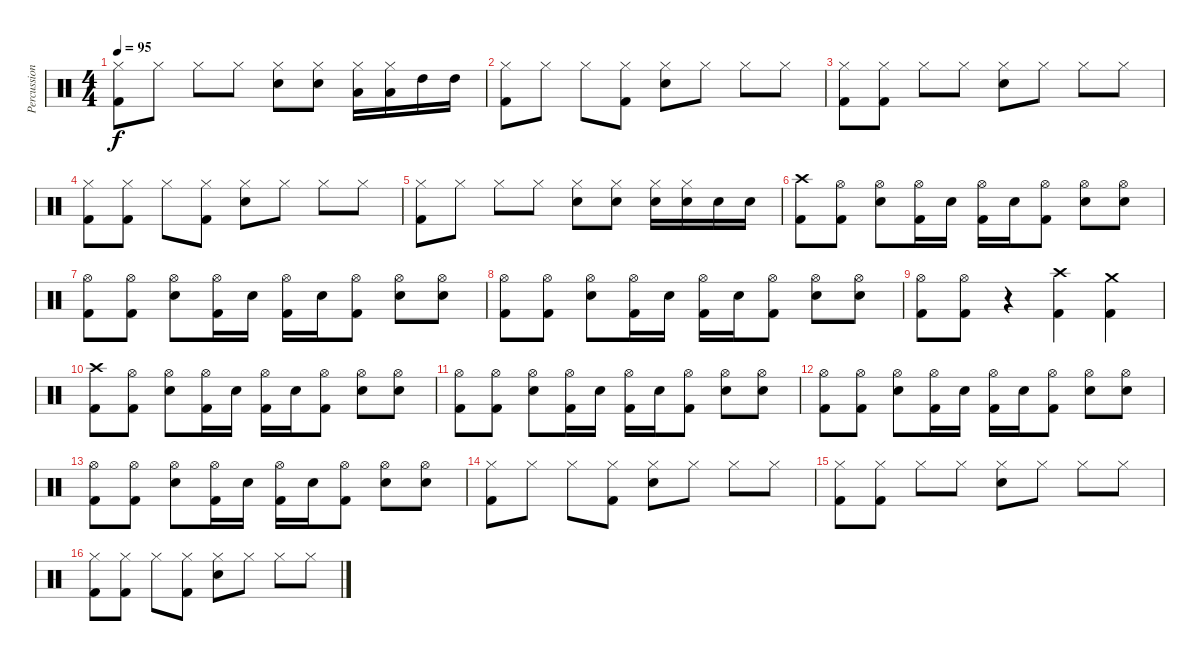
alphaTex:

\track ("Percussion" "Percussion") {instrument percussion}
\staff {score}
\articulation defaults
\ts (4 4)
\tempo 95
\clef neutral
\ks c
("Kick (hit) 2" "Hi-Hat (closed)").8{dy f} "Hi-Hat (closed)".8 "Hi-Hat (closed)".8 "Hi-Hat (closed)".8 ("Snare (hit) 2" "Hi-Hat (closed)").8 ("Snare (hit) 2" "Hi-Hat (closed)").8 ("Low Tom (hit)" "Hi-Hat (closed)").16 ("Low Tom (hit)" "Hi-Hat (closed)").16 "High Tom (hit)".16 "High Tom (hit)".16 |
("Kick (hit) 2" "Hi-Hat (closed)").8 "Hi-Hat (closed)".8 "Hi-Hat (closed)".8 ("Kick (hit) 2" "Hi-Hat (closed)").8 ("Snare (hit) 2" "Hi-Hat (closed)").8 "Hi-Hat (closed)".8 "Hi-Hat (closed)".8 "Hi-Hat (closed)".8 |
("Kick (hit) 2" "Hi-Hat (closed)").8 ("Kick (hit) 2" "Hi-Hat (closed)").8 "Hi-Hat (closed)".8 "Hi-Hat (closed)".8 ("Snare (hit) 2" "Hi-Hat (closed)").8 "Hi-Hat (closed)".8 "Hi-Hat (closed)".8 "Hi-Hat (closed)".8 |
("Kick (hit) 2" "Hi-Hat (closed)").8 ("Kick (hit) 2" "Hi-Hat (closed)").8 "Hi-Hat (closed)".8 ("Kick (hit) 2" "Hi-Hat (closed)").8 ("Snare (hit) 2" "Hi-Hat (closed)").8 "Hi-Hat (closed)".8 "Hi-Hat (closed)".8 "Hi-Hat (closed)".8 |
("Kick (hit) 2" "Hi-Hat (closed)").8 "Hi-Hat (closed)".8 "Hi-Hat (closed)".8 "Hi-Hat (closed)".8 ("Snare (hit) 2" "Hi-Hat (closed)").8 ("Snare (hit) 2" "Hi-Hat (closed)").8 ("Snare (hit) 2" "Hi-Hat (closed)").16 ("Snare (hit) 2" "Hi-Hat (closed)").16 "Snare (hit) 2".16 "Snare (hit) 2".16 |
("Kick (hit) 2" "Crash high (hit)").8 ("Kick (hit) 2" "Hi-Hat (open)").8 ("Snare (hit) 2" "Hi-Hat (open)").8 ("Kick (hit) 2" "Hi-Hat (open)").16 "Snare (hit) 2".16 ("Kick (hit) 2" "Hi-Hat (open)").16 "Snare (hit) 2".16 ("Kick (hit) 2" "Hi-Hat (open)").8 ("Snare (hit) 2" "Hi-Hat (open)").8 ("Snare (hit) 2" "Hi-Hat (open)").8 |
("Kick (hit) 2" "Hi-Hat (open)").8 ("Kick (hit) 2" "Hi-Hat (open)").8 ("Snare (hit) 2" "Hi-Hat (open)").8 ("Kick (hit) 2" "Hi-Hat (open)").16 "Snare (hit) 2".16 ("Kick (hit) 2" "Hi-Hat (open)").16 "Snare (hit) 2".16 ("Kick (hit) 2" "Hi-Hat (open)").8 ("Snare (hit) 2" "Hi-Hat (open)").8 ("Snare (hit) 2" "Hi-Hat (open)").8 |
("Kick (hit) 2" "Hi-Hat (open)").8 ("Kick (hit) 2" "Hi-Hat (open)").8 ("Snare (hit) 2" "Hi-Hat (open)").8 ("Kick (hit) 2" "Hi-Hat (open)").16 "Snare (hit) 2".16 ("Kick (hit) 2" "Hi-Hat (open)").16 "Snare (hit) 2".16 ("Kick (hit) 2" "Hi-Hat (open)").8 ("Snare (hit) 2" "Hi-Hat (open)").8 ("Snare (hit) 2" "Hi-Hat (open)").8 |
("Kick (hit) 2" "Hi-Hat (open)").8 ("Kick (hit) 2" "Hi-Hat (open)").8 r.4 ("Kick (hit) 2" "Crash high (hit)").4 ("Kick (hit) 2" "Crash medium (hit)").4 |
("Kick (hit) 2" "Crash high (hit)").8 ("Kick (hit) 2" "Hi-Hat (open)").8 ("Snare (hit) 2" "Hi-Hat (open)").8 ("Kick (hit) 2" "Hi-Hat (open)").16 "Snare (hit) 2".16 ("Kick (hit) 2" "Hi-Hat (open)").16 "Snare (hit) 2".16 ("Kick (hit) 2" "Hi-Hat (open)").8 ("Snare (hit) 2" "Hi-Hat (open)").8 ("Snare (hit) 2" "Hi-Hat (open)").8 |
("Kick (hit) 2" "Hi-Hat (open)").8 ("Kick (hit) 2" "Hi-Hat (open)").8 ("Snare (hit) 2" "Hi-Hat (open)").8 ("Kick (hit) 2" "Hi-Hat (open)").16 "Snare (hit) 2".16 ("Kick (hit) 2" "Hi-Hat (open)").16 "Snare (hit) 2".16 ("Kick (hit) 2" "Hi-Hat (open)").8 ("Snare (hit) 2" "Hi-Hat (open)").8 ("Snare (hit) 2" "Hi-Hat (open)").8 |
("Kick (hit) 2" "Hi-Hat (open)").8 ("Kick (hit) 2" "Hi-Hat (open)").8 ("Snare (hit) 2" "Hi-Hat (open)").8 ("Kick (hit) 2" "Hi-Hat (open)").16 "Snare (hit) 2".16 ("Kick (hit) 2" "Hi-Hat (open)").16 "Snare (hit) 2".16 ("Kick (hit) 2" "Hi-Hat (open)").8 ("Snare (hit) 2" "Hi-Hat (open)").8 ("Snare (hit) 2" "Hi-Hat (open)").8 |
("Kick (hit) 2" "Hi-Hat (open)").8 ("Kick (hit) 2" "Hi-Hat (open)").8 ("Snare (hit) 2" "Hi-Hat (open)").8 ("Kick (hit) 2" "Hi-Hat (open)").16 "Snare (hit) 2".16 ("Kick (hit) 2" "Hi-Hat (open)").16 "Snare (hit) 2".16 ("Kick (hit) 2" "Hi-Hat (open)").8 ("Snare (hit) 2" "Hi-Hat (open)").8 ("Snare (hit) 2" "Hi-Hat (open)").8 |
("Kick (hit) 2" "Hi-Hat (closed)").8 "Hi-Hat (closed)".8 "Hi-Hat (closed)".8 ("Kick (hit) 2" "Hi-Hat (closed)").8 ("Snare (hit) 2" "Hi-Hat (closed)").8 "Hi-Hat (closed)".8 "Hi-Hat (closed)".8 "Hi-Hat (closed)".8 |
("Kick (hit) 2" "Hi-Hat (closed)").8 ("Kick (hit) 2" "Hi-Hat (closed)").8 "Hi-Hat (closed)".8 "Hi-Hat (closed)".8 ("Snare (hit) 2" "Hi-Hat (closed)").8 "Hi-Hat (closed)".8 "Hi-Hat (closed)".8 "Hi-Hat (closed)".8 |
("Kick (hit) 2" "Hi-Hat (closed)").8 ("Kick (hit) 2" "Hi-Hat (closed)").8 "Hi-Hat (closed)".8 ("Kick (hit) 2" "Hi-Hat (closed)").8 ("Snare (hit) 2" "Hi-Hat (closed)").8 "Hi-Hat (closed)".8 "Hi-Hat (closed)".8 "Hi-Hat (closed)".8
